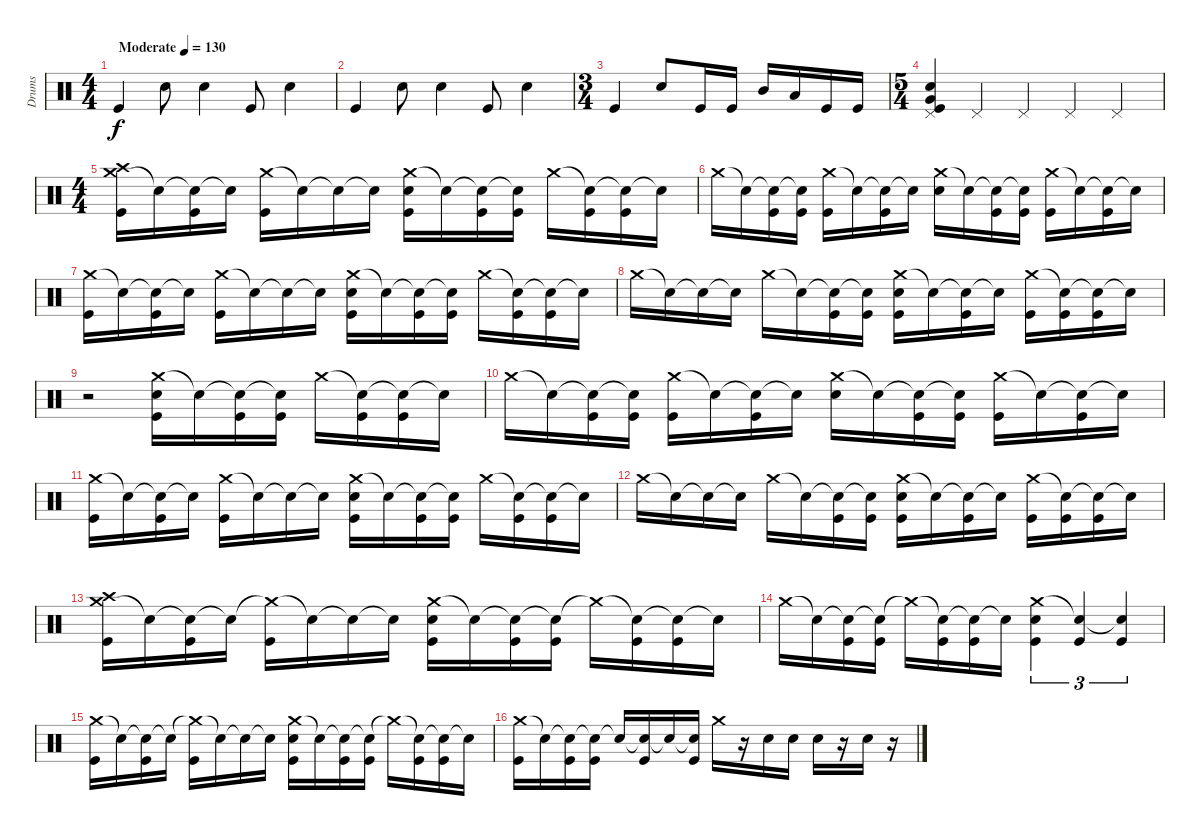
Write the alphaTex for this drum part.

\track ("Drums" "Drums") {instrument percussion}
\staff {score}
\articulation defaults
\ts (4 4)
\tempo (130 "Moderate")
\clef neutral
\ks c "Kick (hit)".4{dy f} "Snare (hit) 2".8 "Snare (hit) 2".4 "Kick (hit)".8 "Snare (hit) 2".4
|
"Kick (hit)".4 "Snare (hit) 2".8 "Snare (hit) 2".4 "Kick (hit)".8 "Snare (hit) 2".4 |
\ts (3 4)
"Kick (hit)".4 "Snare (hit) 2".8 "Kick (hit)".16 "Kick (hit)".16 "Mid Tom (hit)".16 "Low Tom (hit)".16 "Kick (hit)".16 "Kick (hit)".16 |
\ts (5 4)
("Snare (hit) 2" "Very Low Tom (hit)" "Kick (hit)" "Pedal Hi-Hat (hit)").4 "Pedal Hi-Hat (hit)".4 "Pedal Hi-Hat (hit)".4 "Pedal Hi-Hat (hit)".4 "Pedal Hi-Hat (hit)".4 |
\ts (4 4)
("Crash medium (hit)" "Crash high (hit)" "Kick (hit)").16 "Snare (hit)"{t}.16 ("Snare (hit)"{t} "Kick (hit)").16 "Snare (hit)"{t}.16 ("Crash medium (hit)" "Kick (hit)").16 "Snare (hit)"{t}.16 "Snare (hit)"{t}.16 "Snare (hit)"{t}.16 ("Crash medium (hit)" "Snare (hit) 2" "Kick (hit)").16 "Snare (hit)"{t}.16 ("Snare (hit)"{t} "Kick (hit)").16 ("Snare (hit)"{t} "Kick (hit)").16 "Crash medium (hit)".16 ("Snare (hit)"{t} "Kick (hit)").16 ("Snare (hit)"{t} "Kick (hit)").16 "Snare (hit)"{t}.16 |
"Crash medium (hit)".16 "Snare (hit)"{t}.16 ("Snare (hit)"{t} "Kick (hit)").16 ("Snare (hit)"{t} "Kick (hit)").16 ("Crash medium (hit)" "Kick (hit)").16 "Snare (hit)"{t}.16 ("Snare (hit)"{t} "Kick (hit)").16 "Snare (hit)"{t}.16 ("Crash medium (hit)" "Snare (hit) 2").16 "Snare (hit)"{t}.16 ("Snare (hit)"{t} "Kick (hit)").16 ("Snare (hit)"{t} "Kick (hit)").16 ("Crash medium (hit)" "Kick (hit)").16 "Snare (hit)"{t}.16 ("Snare (hit)"{t} "Kick (hit)").16 "Snare (hit)"{t}.16 |
("Crash medium (hit)" "Kick (hit)").16 "Snare (hit)"{t}.16 ("Snare (hit)"{t} "Kick (hit)").16 "Snare (hit)"{t}.16 ("Crash medium (hit)" "Kick (hit)").16 "Snare (hit)"{t}.16 "Snare (hit)"{t}.16 "Snare (hit)"{t}.16 ("Crash medium (hit)" "Snare (hit) 2" "Kick (hit)").16 "Snare (hit)"{t}.16 ("Snare (hit)"{t} "Kick (hit)").16 ("Snare (hit)"{t} "Kick (hit)").16 "Crash medium (hit)".16 ("Snare (hit)"{t} "Kick (hit)").16 ("Snare (hit)"{t} "Kick (hit)").16 "Snare (hit)"{t}.16 |
"Crash medium (hit)".16 "Snare (hit)"{t}.16 "Snare (hit)"{t}.16 "Snare (hit)"{t}.16 "Crash medium (hit)".16 "Snare (hit)"{t}.16 ("Snare (hit)"{t} "Kick (hit)").16 ("Snare (hit)"{t} "Kick (hit)").16 ("Crash medium (hit)" "Snare (hit) 2" "Kick (hit)").16 "Snare (hit)"{t}.16 ("Snare (hit)"{t} "Kick (hit)").16 "Snare (hit)"{t}.16 ("Crash medium (hit)" "Kick (hit)").16 ("Snare (hit)"{t} "Kick (hit)").16 ("Snare (hit)"{t} "Kick (hit)").16 "Snare (hit)"{t}.16 |
r.2 ("Crash medium (hit)" "Snare (hit) 2" "Kick (hit)").16 "Snare (hit)"{t}.16 ("Snare (hit)"{t} "Kick (hit)").16 ("Snare (hit)"{t} "Kick (hit)").16 "Crash medium (hit)".16 ("Snare (hit)"{t} "Kick (hit)").16 ("Snare (hit)"{t} "Kick (hit)").16 "Snare (hit)"{t}.16 |
"Crash medium (hit)".16 "Snare (hit)"{t}.16 ("Snare (hit)"{t} "Kick (hit)").16 ("Snare (hit)"{t} "Kick (hit)").16 ("Crash medium (hit)" "Kick (hit)").16 "Snare (hit)"{t}.16 ("Snare (hit)"{t} "Kick (hit)").16 "Snare (hit)"{t}.16 ("Crash medium (hit)" "Snare (hit) 2").16 "Snare (hit)"{t}.16 ("Snare (hit)"{t} "Kick (hit)").16 ("Snare (hit)"{t} "Kick (hit)").16 ("Crash medium (hit)" "Kick (hit)").16 "Snare (hit)"{t}.16 ("Snare (hit)"{t} "Kick (hit)").16 "Snare (hit)"{t}.16 |
("Crash medium (hit)" "Kick (hit)").16 "Snare (hit)"{t}.16 ("Snare (hit)"{t} "Kick (hit)").16 "Snare (hit)"{t}.16 ("Crash medium (hit)" "Kick (hit)").16 "Snare (hit)"{t}.16 "Snare (hit)"{t}.16 "Snare (hit)"{t}.16 ("Crash medium (hit)" "Snare (hit) 2" "Kick (hit)").16 "Snare (hit)"{t}.16 ("Snare (hit)"{t} "Kick (hit)").16 ("Snare (hit)"{t} "Kick (hit)").16 "Crash medium (hit)".16 ("Snare (hit)"{t} "Kick (hit)").16 ("Snare (hit)"{t} "Kick (hit)").16 "Snare (hit)"{t}.16 |
"Crash medium (hit)".16 "Snare (hit)"{t}.16 "Snare (hit)"{t}.16 "Snare (hit)"{t}.16 "Crash medium (hit)".16 "Snare (hit)"{t}.16 ("Snare (hit)"{t} "Kick (hit)").16 ("Snare (hit)"{t} "Kick (hit)").16 ("Crash medium (hit)" "Snare (hit) 2" "Kick (hit)").16 "Snare (hit)"{t}.16 ("Snare (hit)"{t} "Kick (hit)").16 "Snare (hit)"{t}.16 ("Crash medium (hit)" "Kick (hit)").16 ("Snare (hit)"{t} "Kick (hit)").16 ("Snare (hit)"{t} "Kick (hit)").16 "Snare (hit)"{t}.16 |
("Crash medium (hit)" "Crash high (hit)" "Kick (hit)").16 "Snare (hit)"{t}.16 ("Snare (hit)"{t} "Kick (hit)").16 "Snare (hit)"{t}.16 ("Crash medium (hit)"{t} "Kick (hit)").16 "Snare (hit)"{t}.16 "Snare (hit)"{t}.16 "Snare (hit)"{t}.16 ("Crash medium (hit)" "Snare (hit) 2" "Kick (hit)").16 "Snare (hit)"{t}.16 ("Snare (hit)"{t} "Kick (hit)").16 ("Snare (hit)"{t} "Kick (hit)").16 "Crash medium (hit)"{t}.16 ("Snare (hit)"{t} "Kick (hit)").16 ("Snare (hit)"{t} "Kick (hit)").16 "Snare (hit)"{t}.16 |
"Crash medium (hit)".16 "Snare (hit)"{t}.16 ("Snare (hit)"{t} "Kick (hit)").16 ("Snare (hit)"{t} "Kick (hit)").16 "Crash medium (hit)"{t}.16 ("Snare (hit)"{t} "Kick (hit)").16 ("Snare (hit)"{t} "Kick (hit)").16 "Snare (hit)"{t}.16 ("Crash medium (hit)" "Snare (hit) 2" "Kick (hit)").4{tu (3 2)} ("Snare (hit)"{t} "Kick (hit)").4{tu (3 2)} ("Snare (hit)"{t} "Kick (hit)").4{tu (3 2)} |
("Crash medium (hit)" "Kick (hit)").16 "Snare (hit)"{t}.16 ("Snare (hit)"{t} "Kick (hit)").16 "Snare (hit)"{t}.16 ("Crash medium (hit)"{t} "Kick (hit)").16 "Snare (hit)"{t}.16 "Snare (hit)"{t}.16 "Snare (hit)"{t}.16 ("Crash medium (hit)" "Snare (hit) 2" "Kick (hit)").16 "Snare (hit)"{t}.16 ("Snare (hit)"{t} "Kick (hit)").16 ("Snare (hit)"{t} "Kick (hit)").16 "Crash medium (hit)"{t}.16 ("Snare (hit)"{t} "Kick (hit)").16 ("Snare (hit)"{t} "Kick (hit)").16 "Snare (hit)"{t}.16 |
("Crash medium (hit)" "Kick (hit)").16 "Snare (hit)"{t}.16 ("Snare (hit)"{t} "Kick (hit)").16 ("Snare (hit)"{t} "Kick (hit)").16 "Snare (hit)"{t}.16 ("Snare (hit)"{t} "Kick (hit)").16 "Snare (hit)"{t}.16 ("Snare (hit)"{t} "Kick (hit)").16 "Crash medium (hit)".16 r.16 "Snare (hit) 2".16 "Snare (hit) 2".16 "Snare (hit) 2".16 r.16 "Snare (hit) 2".16 r.16
